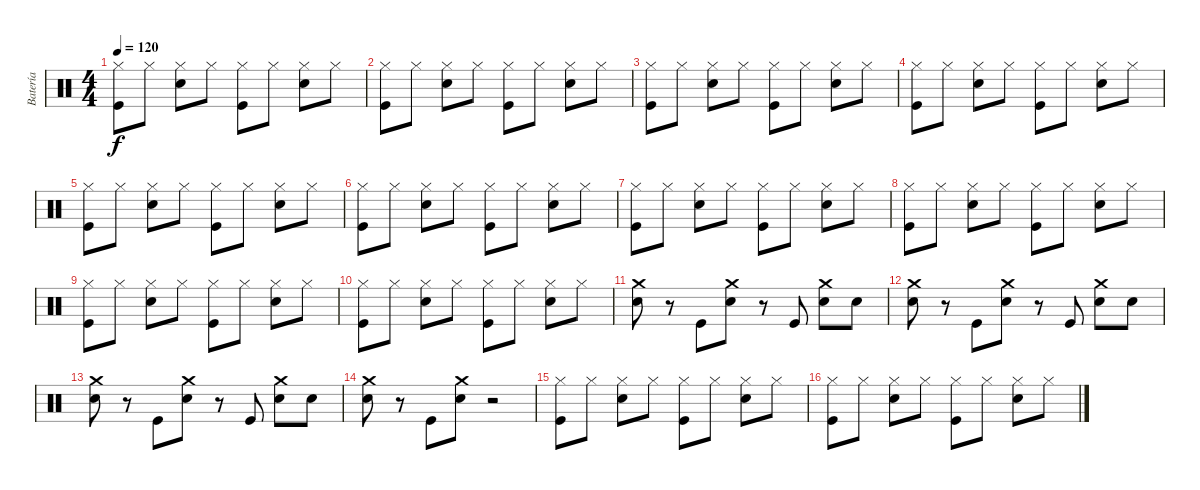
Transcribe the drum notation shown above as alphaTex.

\track ("Batería" "Batería") {instrument percussion}
\staff {score}
\articulation defaults
\ts (4 4)
\tempo 120
\clef neutral
\ks c
("Hi-Hat (closed)" "Kick (hit)").8{dy f} "Hi-Hat (closed)".8 ("Hi-Hat (closed)" "Snare (hit) 2").8 "Hi-Hat (closed)".8 ("Hi-Hat (closed)" "Kick (hit)").8 "Hi-Hat (closed)".8 ("Hi-Hat (closed)" "Snare (hit) 2").8 "Hi-Hat (closed)".8 |
("Hi-Hat (closed)" "Kick (hit)").8 "Hi-Hat (closed)".8 ("Hi-Hat (closed)" "Snare (hit) 2").8 "Hi-Hat (closed)".8 ("Hi-Hat (closed)" "Kick (hit)").8 "Hi-Hat (closed)".8 ("Hi-Hat (closed)" "Snare (hit) 2").8 "Hi-Hat (closed)".8 |
("Hi-Hat (closed)" "Kick (hit)").8 "Hi-Hat (closed)".8 ("Hi-Hat (closed)" "Snare (hit) 2").8 "Hi-Hat (closed)".8 ("Hi-Hat (closed)" "Kick (hit)").8 "Hi-Hat (closed)".8 ("Hi-Hat (closed)" "Snare (hit) 2").8 "Hi-Hat (closed)".8 |
("Hi-Hat (closed)" "Kick (hit)").8 "Hi-Hat (closed)".8 ("Hi-Hat (closed)" "Snare (hit) 2").8 "Hi-Hat (closed)".8 ("Hi-Hat (closed)" "Kick (hit)").8 "Hi-Hat (closed)".8 ("Hi-Hat (closed)" "Snare (hit) 2").8 "Hi-Hat (closed)".8 |
("Hi-Hat (closed)" "Kick (hit)").8 "Hi-Hat (closed)".8 ("Hi-Hat (closed)" "Snare (hit) 2").8 "Hi-Hat (closed)".8 ("Hi-Hat (closed)" "Kick (hit)").8 "Hi-Hat (closed)".8 ("Hi-Hat (closed)" "Snare (hit) 2").8 "Hi-Hat (closed)".8 |
("Hi-Hat (closed)" "Kick (hit)").8 "Hi-Hat (closed)".8 ("Hi-Hat (closed)" "Snare (hit) 2").8 "Hi-Hat (closed)".8 ("Hi-Hat (closed)" "Kick (hit)").8 "Hi-Hat (closed)".8 ("Hi-Hat (closed)" "Snare (hit) 2").8 "Hi-Hat (closed)".8 |
("Hi-Hat (closed)" "Kick (hit)").8 "Hi-Hat (closed)".8 ("Hi-Hat (closed)" "Snare (hit) 2").8 "Hi-Hat (closed)".8 ("Hi-Hat (closed)" "Kick (hit)").8 "Hi-Hat (closed)".8 ("Hi-Hat (closed)" "Snare (hit) 2").8 "Hi-Hat (closed)".8 |
("Hi-Hat (closed)" "Kick (hit)").8 "Hi-Hat (closed)".8 ("Hi-Hat (closed)" "Snare (hit) 2").8 "Hi-Hat (closed)".8 ("Hi-Hat (closed)" "Kick (hit)").8 "Hi-Hat (closed)".8 ("Hi-Hat (closed)" "Snare (hit) 2").8 "Hi-Hat (closed)".8 |
("Hi-Hat (closed)" "Kick (hit)").8 "Hi-Hat (closed)".8 ("Hi-Hat (closed)" "Snare (hit) 2").8 "Hi-Hat (closed)".8 ("Hi-Hat (closed)" "Kick (hit)").8 "Hi-Hat (closed)".8 ("Hi-Hat (closed)" "Snare (hit) 2").8 "Hi-Hat (closed)".8 |
("Hi-Hat (closed)" "Kick (hit)").8 "Hi-Hat (closed)".8 ("Hi-Hat (closed)" "Snare (hit) 2").8 "Hi-Hat (closed)".8 ("Hi-Hat (closed)" "Kick (hit)").8 "Hi-Hat (closed)".8 ("Hi-Hat (closed)" "Snare (hit) 2").8 "Hi-Hat (closed)".8 |
("Crash medium (hit)" "Snare (hit) 2").8 r.8 "Kick (hit)".8 ("Crash medium (hit)" "Snare (hit) 2").8 r.8 "Kick (hit)".8 ("Crash medium (hit)" "Snare (hit) 2").8 "Snare (hit) 2".8 |
("Crash medium (hit)" "Snare (hit) 2").8 r.8 "Kick (hit)".8 ("Crash medium (hit)" "Snare (hit) 2").8 r.8 "Kick (hit)".8 ("Crash medium (hit)" "Snare (hit) 2").8 "Snare (hit) 2".8 |
("Crash medium (hit)" "Snare (hit) 2").8 r.8 "Kick (hit)".8 ("Crash medium (hit)" "Snare (hit) 2").8 r.8 "Kick (hit)".8 ("Crash medium (hit)" "Snare (hit) 2").8 "Snare (hit) 2".8 |
("Crash medium (hit)" "Snare (hit) 2").8 r.8 "Kick (hit)".8 ("Crash medium (hit)" "Snare (hit) 2").8 r.2 |
("Hi-Hat (closed)" "Kick (hit)").8 "Hi-Hat (closed)".8 ("Hi-Hat (closed)" "Snare (hit) 2").8 "Hi-Hat (closed)".8 ("Hi-Hat (closed)" "Kick (hit)").8 "Hi-Hat (closed)".8 ("Hi-Hat (closed)" "Snare (hit) 2").8 "Hi-Hat (closed)".8 |
("Hi-Hat (closed)" "Kick (hit)").8 "Hi-Hat (closed)".8 ("Hi-Hat (closed)" "Snare (hit) 2").8 "Hi-Hat (closed)".8 ("Hi-Hat (closed)" "Kick (hit)").8 "Hi-Hat (closed)".8 ("Hi-Hat (closed)" "Snare (hit) 2").8 "Hi-Hat (closed)".8
